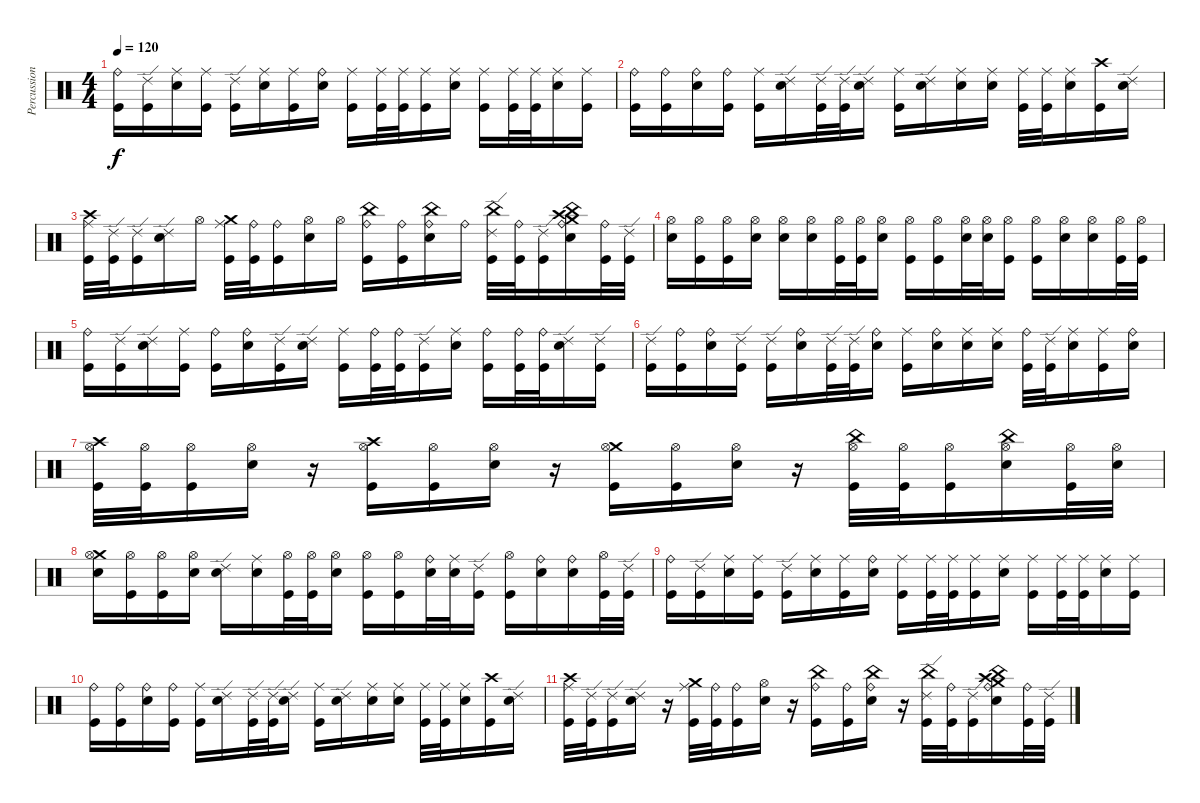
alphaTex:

\track ("Percussion" "Percussion") {instrument percussion}
\staff {score}
\articulation defaults
\ts (4 4)
\tempo 120
\clef neutral
\ks c
("Ride (bell)" "Kick (hit)").16{dy f} ("Ride (edge) 2" "Kick (hit)").16 ("Ride (middle)" "Snare (hit) 2").16 ("Ride (middle)" "Kick (hit)").16 ("Ride (edge) 2" "Kick (hit)").16 ("Ride (middle)" "Snare (hit) 2").16 ("Ride (middle)" "Kick (hit)").16 ("Ride (bell)" "Snare (hit) 2").16 ("Ride (middle)" "Kick (hit)").16 ("Ride (middle)" "Kick (hit)").32 ("Ride (middle)" "Kick (hit)").32 ("Ride (middle)" "Kick (hit)").16 ("Ride (middle)" "Snare (hit) 2").16 ("Ride (middle)" "Kick (hit)").16 ("Ride (middle)" "Kick (hit)").32 ("Ride (middle)" "Kick (hit)").32 ("Ride (middle)" "Snare (hit) 2").16 ("Ride (middle)" "Kick (hit)").16 |
("Ride (bell)" "Kick (hit)").16 ("Ride (bell)" "Kick (hit)").16 ("Ride (bell)" "Snare (hit) 2").16 ("Ride (bell)" "Kick (hit)").16 ("Ride (middle)" "Kick (hit)").16 ("Ride (edge) 2" "Snare (hit) 2").16 ("Ride (edge) 2" "Kick (hit)").32 ("Ride (edge) 2" "Kick (hit)").32 ("Ride (edge) 2" "Snare (hit) 2").16 ("Ride (middle)" "Kick (hit)").16 ("Ride (edge) 2" "Snare (hit) 2").16 ("Ride (middle)" "Snare (hit) 2").16 ("Ride (middle)" "Snare (hit) 2").16 ("Ride (middle)" "Kick (hit)").32 ("Ride (middle)" "Kick (hit)").32 ("Ride (middle)" "Snare (hit) 2").16 ("Crash high (hit)" "Kick (hit)").16 ("Ride (edge) 2" "Snare (hit) 2").16 |
("Crash high (hit)" "Ride (middle)" "Kick (hit)").32 ("Ride (edge) 2" "Kick (hit)").32 ("Ride (edge) 2" "Kick (hit)").16 ("Ride (edge) 2" "Snare (hit) 2").16 "Hi-Hat (open)".16 ("Crash medium (hit)" "Ride (middle)" "Kick (hit)").32 ("Ride (bell)" "Kick (hit)").32 ("Ride (bell)" "Kick (hit)").16 ("Hi-Hat (open)" "Snare (hit) 2").16 "Hi-Hat (open)".16 ("China (hit)" "Ride (bell)" "Kick (hit)").16 ("Ride (bell)" "Kick (hit)").16 ("China (hit)" "Ride (bell)" "Snare (hit) 2").16 "Ride (bell)".16 ("China (hit)" "Ride (edge) 2" "Kick (hit)").32 ("Ride (bell)" "Kick (hit)").32 ("Ride (edge) 2" "Kick (hit)").16 ("China (hit)" "Crash medium (hit)" "Crash high (hit)" "Ride (bell)" "Snare (hit) 2").16 ("Ride (bell)" "Kick (hit)").32 ("Ride (edge) 2" "Kick (hit)").32 |
("Hi-Hat (open)" "Snare (hit) 2").16 ("Hi-Hat (open)" "Kick (hit)").16 ("Hi-Hat (open)" "Kick (hit)").16 ("Hi-Hat (open)" "Snare (hit) 2").16 ("Hi-Hat (open)" "Snare (hit) 2").16 ("Hi-Hat (open)" "Snare (hit) 2").16 ("Hi-Hat (open)" "Kick (hit)").32 ("Hi-Hat (open)" "Kick (hit)").32 ("Hi-Hat (open)" "Snare (hit) 2").16 ("Hi-Hat (open)" "Kick (hit)").16 ("Hi-Hat (open)" "Kick (hit)").16 ("Hi-Hat (open)" "Snare (hit) 2").32 ("Hi-Hat (open)" "Snare (hit) 2").32 ("Hi-Hat (open)" "Kick (hit)").16 ("Hi-Hat (open)" "Kick (hit)").16 ("Hi-Hat (open)" "Snare (hit) 2").16 ("Hi-Hat (open)" "Snare (hit) 2").16 ("Hi-Hat (open)" "Kick (hit)").32 ("Hi-Hat (open)" "Kick (hit)").32 |
("Ride (bell)" "Kick (hit)").16 ("Ride (edge) 2" "Kick (hit)").16 ("Ride (edge) 2" "Snare (hit) 2").16 ("Ride (middle)" "Kick (hit)").16 ("Ride (bell)" "Kick (hit)").16 ("Ride (bell)" "Snare (hit) 2").16 ("Ride (edge) 2" "Kick (hit)").16 ("Ride (edge) 2" "Snare (hit) 2").16 ("Ride (middle)" "Kick (hit)").16 ("Ride (bell)" "Kick (hit)").32 ("Ride (bell)" "Kick (hit)").32 ("Ride (edge) 2" "Kick (hit)").16 ("Ride (middle)" "Snare (hit) 2").16 ("Ride (bell)" "Kick (hit)").16 ("Ride (bell)" "Kick (hit)").32 ("Ride (bell)" "Kick (hit)").32 ("Ride (edge) 2" "Snare (hit) 2").16 ("Ride (edge) 2" "Kick (hit)").16 |
("Ride (edge) 2" "Kick (hit)").16 ("Ride (bell)" "Kick (hit)").16 ("Ride (bell)" "Snare (hit) 2").16 ("Ride (edge) 2" "Kick (hit)").16 ("Ride (edge) 2" "Kick (hit)").16 ("Ride (bell)" "Snare (hit) 2").16 ("Ride (edge) 2" "Kick (hit)").32 ("Ride (edge) 2" "Kick (hit)").32 ("Ride (bell)" "Snare (hit) 2").16 ("Ride (middle)" "Kick (hit)").16 ("Ride (bell)" "Snare (hit) 2").16 ("Ride (middle)" "Snare (hit) 2").16 ("Ride (middle)" "Snare (hit) 2").16 ("Ride (bell)" "Kick (hit)").32 ("Ride (edge) 2" "Kick (hit)").32 ("Ride (middle)" "Snare (hit) 2").16 ("Ride (middle)" "Kick (hit)").16 ("Ride (bell)" "Snare (hit) 2").16 |
("Crash high (hit)" "Hi-Hat (open)" "Kick (hit)").32 ("Hi-Hat (open)" "Kick (hit)").32 ("Hi-Hat (open)" "Kick (hit)").16 ("Hi-Hat (open)" "Snare (hit) 2").16 r.16 ("Crash high (hit)" "Hi-Hat (open)" "Kick (hit)").16 ("Hi-Hat (open)" "Kick (hit)").16 ("Hi-Hat (open)" "Snare (hit) 2").16 r.16 ("Crash medium (hit)" "Hi-Hat (open)" "Kick (hit)").16 ("Hi-Hat (open)" "Kick (hit)").16 ("Hi-Hat (open)" "Snare (hit) 2").16 r.16 ("China (hit)" "Hi-Hat (open)" "Kick (hit)").32 ("Hi-Hat (open)" "Kick (hit)").32 ("Hi-Hat (open)" "Kick (hit)").16 ("China (hit)" "Hi-Hat (open)" "Snare (hit) 2").16 ("Hi-Hat (open)" "Kick (hit)").32 ("Hi-Hat (open)" "Snare (hit) 2").32 |
("Crash medium (hit)" "Hi-Hat (open)" "Snare (hit) 2").16 ("Hi-Hat (open)" "Kick (hit)").16 ("Hi-Hat (open)" "Kick (hit)").16 ("Hi-Hat (open)" "Snare (hit) 2").16 ("Ride (edge) 2" "Snare (hit) 2").16 ("Ride (middle)" "Snare (hit) 2").16 ("Hi-Hat (open)" "Kick (hit)").32 ("Hi-Hat (open)" "Kick (hit)").32 ("Hi-Hat (open)" "Snare (hit) 2").16 ("Hi-Hat (open)" "Kick (hit)").16 ("Hi-Hat (open)" "Kick (hit)").16 ("Ride (bell)" "Snare (hit) 2").32 ("Ride (middle)" "Snare (hit) 2").32 ("Ride (edge) 2" "Kick (hit)").16 ("Hi-Hat (open)" "Kick (hit)").16 ("Ride (bell)" "Snare (hit) 2").16 ("Ride (bell)" "Snare (hit) 2").16 ("Hi-Hat (open)" "Kick (hit)").32 ("Ride (edge) 2" "Kick (hit)").32 |
("Ride (bell)" "Kick (hit)").16 ("Ride (edge) 2" "Kick (hit)").16 ("Ride (middle)" "Snare (hit) 2").16 ("Ride (middle)" "Kick (hit)").16 ("Ride (edge) 2" "Kick (hit)").16 ("Ride (middle)" "Snare (hit) 2").16 ("Ride (middle)" "Kick (hit)").16 ("Ride (bell)" "Snare (hit) 2").16 ("Ride (middle)" "Kick (hit)").16 ("Ride (middle)" "Kick (hit)").32 ("Ride (middle)" "Kick (hit)").32 ("Ride (middle)" "Kick (hit)").16 ("Ride (middle)" "Snare (hit) 2").16 ("Ride (middle)" "Kick (hit)").16 ("Ride (middle)" "Kick (hit)").32 ("Ride (middle)" "Kick (hit)").32 ("Ride (middle)" "Snare (hit) 2").16 ("Ride (middle)" "Kick (hit)").16 |
("Ride (bell)" "Kick (hit)").16 ("Ride (bell)" "Kick (hit)").16 ("Ride (bell)" "Snare (hit) 2").16 ("Ride (bell)" "Kick (hit)").16 ("Ride (middle)" "Kick (hit)").16 ("Ride (edge) 2" "Snare (hit) 2").16 ("Ride (edge) 2" "Kick (hit)").32 ("Ride (edge) 2" "Kick (hit)").32 ("Ride (edge) 2" "Snare (hit) 2").16 ("Ride (middle)" "Kick (hit)").16 ("Ride (edge) 2" "Snare (hit) 2").16 ("Ride (middle)" "Snare (hit) 2").16 ("Ride (middle)" "Snare (hit) 2").16 ("Ride (middle)" "Kick (hit)").32 ("Ride (middle)" "Kick (hit)").32 ("Ride (middle)" "Snare (hit) 2").16 ("Crash high (hit)" "Kick (hit)").16 ("Ride (edge) 2" "Snare (hit) 2").16 |
("Crash high (hit)" "Ride (middle)" "Kick (hit)").32 ("Ride (edge) 2" "Kick (hit)").32 ("Ride (edge) 2" "Kick (hit)").16 ("Ride (edge) 2" "Snare (hit) 2").16 r.16 ("Crash medium (hit)" "Ride (middle)" "Kick (hit)").32 ("Ride (bell)" "Kick (hit)").32 ("Ride (bell)" "Kick (hit)").16 ("Hi-Hat (open)" "Snare (hit) 2").16 r.16 ("China (hit)" "Ride (bell)" "Kick (hit)").16 ("Ride (bell)" "Kick (hit)").16 ("China (hit)" "Ride (bell)" "Snare (hit) 2").16 r.16 ("China (hit)" "Ride (edge) 2" "Kick (hit)").32 ("Ride (bell)" "Kick (hit)").32 ("Ride (edge) 2" "Kick (hit)").16 ("China (hit)" "Crash medium (hit)" "Crash high (hit)" "Ride (bell)" "Snare (hit) 2").16 ("Ride (bell)" "Kick (hit)").32 ("Ride (edge) 2" "Kick (hit)").32
